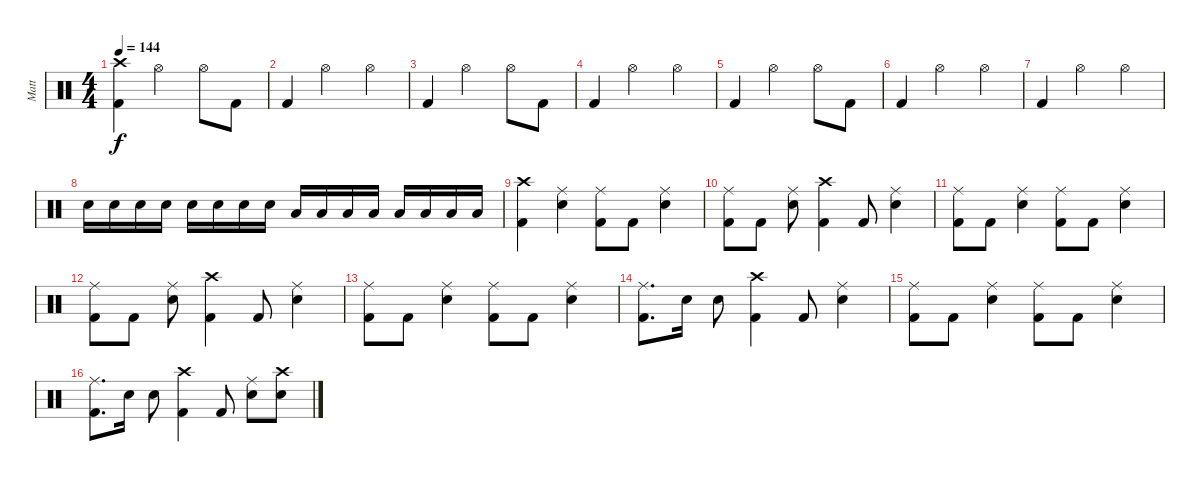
\track ("Matt" "Matt") {instrument percussion}
\staff {score}
\articulation defaults
\ts (4 4)
\tempo 144
\clef neutral
\ks c
("Crash high (hit)" "Kick (hit) 2").4{dy f} "Hi-Hat (open)".2 "Hi-Hat (open)".8 "Kick (hit) 2".8 |
"Kick (hit) 2".4 "Hi-Hat (open)".2 "Hi-Hat (open)".4 |
"Kick (hit) 2".4 "Hi-Hat (open)".2 "Hi-Hat (open)".8 "Kick (hit) 2".8 |
"Kick (hit) 2".4 "Hi-Hat (open)".2 "Hi-Hat (open)".4 |
"Kick (hit) 2".4 "Hi-Hat (open)".2 "Hi-Hat (open)".8 "Kick (hit) 2".8 |
"Kick (hit) 2".4 "Hi-Hat (open)".2 "Hi-Hat (open)".4 |
"Kick (hit) 2".4 "Hi-Hat (open)".2 "Hi-Hat (open)".4 |
"Electric Snare (hit)".16 "Electric Snare (hit)".16 "Electric Snare (hit)".16 "Electric Snare (hit)".16 "Electric Snare (hit)".16 "Electric Snare (hit)".16 "Electric Snare (hit)".16 "Electric Snare (hit)".16 "Low Tom (hit)".16 "Low Tom (hit)".16 "Low Tom (hit)".16 "Low Tom (hit)".16 "Low Floor Tom (hit)".16 "Low Floor Tom (hit)".16 "Low Floor Tom (hit)".16 "Low Floor Tom (hit)".16 |
("Crash high (hit)" "Kick (hit) 2").4 ("Ride (middle)" "Electric Snare (hit)").4 ("Ride (middle)" "Kick (hit) 2").8 "Kick (hit) 2".8 ("Ride (middle)" "Electric Snare (hit)").4 |
("Ride (middle)" "Kick (hit) 2").8 "Kick (hit) 2".8 ("Ride (middle)" "Electric Snare (hit)").8 ("Crash high (hit)" "Kick (hit) 2").4 "Kick (hit) 2".8 ("Ride (middle)" "Electric Snare (hit)").4 |
("Ride (middle)" "Kick (hit) 2").8 "Kick (hit) 2".8 ("Ride (middle)" "Electric Snare (hit)").4 ("Ride (middle)" "Kick (hit) 2").8 "Kick (hit) 2".8 ("Ride (middle)" "Electric Snare (hit)").4 |
("Ride (middle)" "Kick (hit) 2").8 "Kick (hit) 2".8 ("Ride (middle)" "Electric Snare (hit)").8 ("Crash high (hit)" "Kick (hit) 2").4 "Kick (hit) 2".8 ("Ride (middle)" "Electric Snare (hit)").4 |
("Ride (middle)" "Kick (hit) 2").8 "Kick (hit) 2".8 ("Ride (middle)" "Electric Snare (hit)").4 ("Ride (middle)" "Kick (hit) 2").8 "Kick (hit) 2".8 ("Ride (middle)" "Electric Snare (hit)").4 |
("Ride (middle)" "Kick (hit) 2").8{d} "Electric Snare (hit)".16 "Electric Snare (hit)".8 ("Crash high (hit)" "Kick (hit) 2").4 "Kick (hit) 2".8 ("Ride (middle)" "Electric Snare (hit)").4 |
("Ride (middle)" "Kick (hit) 2").8 "Kick (hit) 2".8 ("Ride (middle)" "Electric Snare (hit)").4 ("Ride (middle)" "Kick (hit) 2").8 "Kick (hit) 2".8 ("Ride (middle)" "Electric Snare (hit)").4 |
("Ride (middle)" "Kick (hit) 2").8{d} "Electric Snare (hit)".16 "Electric Snare (hit)".8 ("Crash high (hit)" "Kick (hit) 2").4 "Kick (hit) 2".8 ("Ride (middle)" "Electric Snare (hit)").8 ("Crash high (hit)" "Electric Snare (hit)").8
